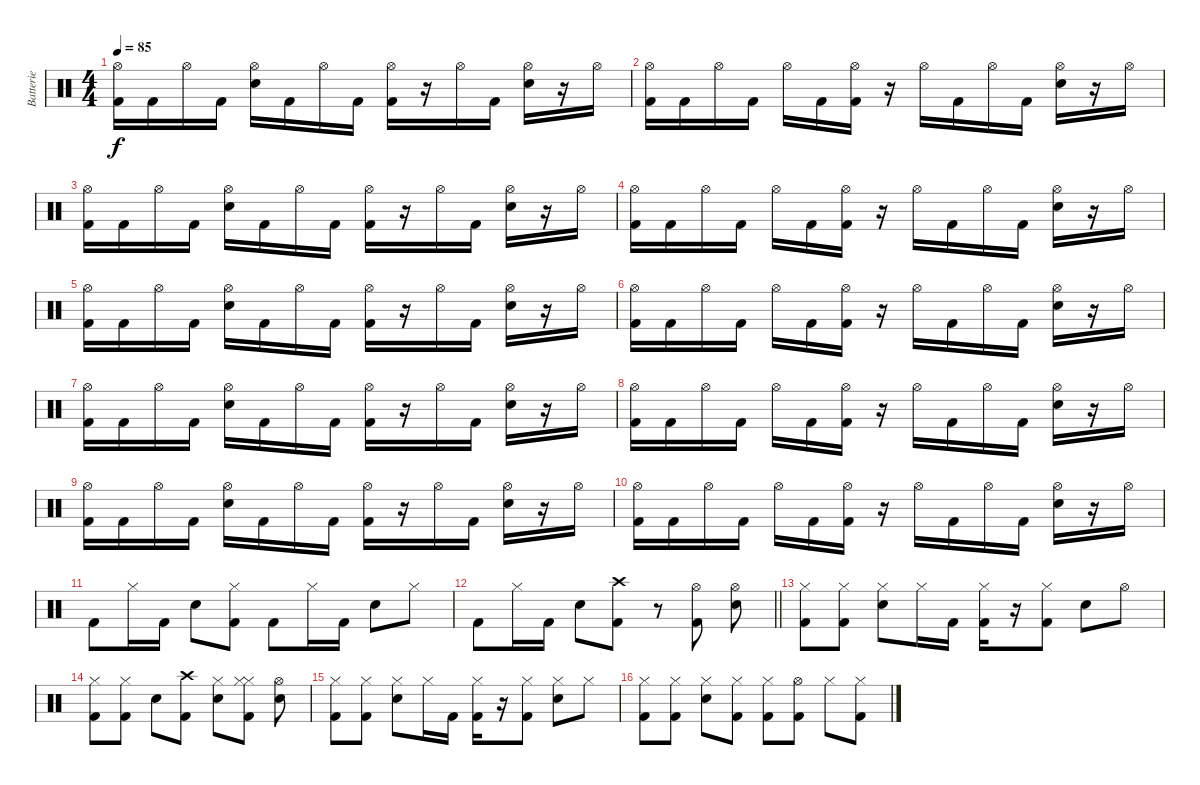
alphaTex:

\track ("Batterie" "Batterie") {instrument percussion}
\staff {score}
\articulation defaults
\ts (4 4)
\tempo 85
\clef neutral
\ks c
("Hi-Hat (open)" "Kick (hit) 2").16{dy f} "Kick (hit) 2".16 "Hi-Hat (open)".16 "Kick (hit) 2".16 ("Hi-Hat (open)" "Snare (hit) 2").16 "Kick (hit) 2".16 "Hi-Hat (open)".16 "Kick (hit) 2".16 ("Hi-Hat (open)" "Kick (hit) 2").16 r.16 "Hi-Hat (open)".16 "Kick (hit) 2".16 ("Hi-Hat (open)" "Snare (hit) 2").16 r.16 "Hi-Hat (open)".16 |
("Kick (hit) 2" "Hi-Hat (open)").16 "Kick (hit) 2".16 "Hi-Hat (open)".16 "Kick (hit) 2".16 "Hi-Hat (open)".16 "Kick (hit) 2".16 ("Hi-Hat (open)" "Kick (hit) 2").16 r.16 "Hi-Hat (open)".16 "Kick (hit) 2".16 "Hi-Hat (open)".16 "Kick (hit) 2".16 ("Snare (hit) 2" "Hi-Hat (open)").16 r.16 "Hi-Hat (open)".16 |
("Hi-Hat (open)" "Kick (hit) 2").16 "Kick (hit) 2".16 "Hi-Hat (open)".16 "Kick (hit) 2".16 ("Hi-Hat (open)" "Snare (hit) 2").16 "Kick (hit) 2".16 "Hi-Hat (open)".16 "Kick (hit) 2".16 ("Hi-Hat (open)" "Kick (hit) 2").16 r.16 "Hi-Hat (open)".16 "Kick (hit) 2".16 ("Hi-Hat (open)" "Snare (hit) 2").16 r.16 "Hi-Hat (open)".16 |
("Kick (hit) 2" "Hi-Hat (open)").16 "Kick (hit) 2".16 "Hi-Hat (open)".16 "Kick (hit) 2".16 "Hi-Hat (open)".16 "Kick (hit) 2".16 ("Hi-Hat (open)" "Kick (hit) 2").16 r.16 "Hi-Hat (open)".16 "Kick (hit) 2".16 "Hi-Hat (open)".16 "Kick (hit) 2".16 ("Snare (hit) 2" "Hi-Hat (open)").16 r.16 "Hi-Hat (open)".16 |
("Hi-Hat (open)" "Kick (hit) 2").16 "Kick (hit) 2".16 "Hi-Hat (open)".16 "Kick (hit) 2".16 ("Hi-Hat (open)" "Snare (hit) 2").16 "Kick (hit) 2".16 "Hi-Hat (open)".16 "Kick (hit) 2".16 ("Hi-Hat (open)" "Kick (hit) 2").16 r.16 "Hi-Hat (open)".16 "Kick (hit) 2".16 ("Hi-Hat (open)" "Snare (hit) 2").16 r.16 "Hi-Hat (open)".16 |
("Kick (hit) 2" "Hi-Hat (open)").16 "Kick (hit) 2".16 "Hi-Hat (open)".16 "Kick (hit) 2".16 "Hi-Hat (open)".16 "Kick (hit) 2".16 ("Hi-Hat (open)" "Kick (hit) 2").16 r.16 "Hi-Hat (open)".16 "Kick (hit) 2".16 "Hi-Hat (open)".16 "Kick (hit) 2".16 ("Snare (hit) 2" "Hi-Hat (open)").16 r.16 "Hi-Hat (open)".16 |
("Hi-Hat (open)" "Kick (hit) 2").16 "Kick (hit) 2".16 "Hi-Hat (open)".16 "Kick (hit) 2".16 ("Hi-Hat (open)" "Snare (hit) 2").16 "Kick (hit) 2".16 "Hi-Hat (open)".16 "Kick (hit) 2".16 ("Hi-Hat (open)" "Kick (hit) 2").16 r.16 "Hi-Hat (open)".16 "Kick (hit) 2".16 ("Hi-Hat (open)" "Snare (hit) 2").16 r.16 "Hi-Hat (open)".16 |
("Kick (hit) 2" "Hi-Hat (open)").16 "Kick (hit) 2".16 "Hi-Hat (open)".16 "Kick (hit) 2".16 "Hi-Hat (open)".16 "Kick (hit) 2".16 ("Hi-Hat (open)" "Kick (hit) 2").16 r.16 "Hi-Hat (open)".16 "Kick (hit) 2".16 "Hi-Hat (open)".16 "Kick (hit) 2".16 ("Snare (hit) 2" "Hi-Hat (open)").16 r.16 "Hi-Hat (open)".16 |
("Hi-Hat (open)" "Kick (hit) 2").16 "Kick (hit) 2".16 "Hi-Hat (open)".16 "Kick (hit) 2".16 ("Hi-Hat (open)" "Snare (hit) 2").16 "Kick (hit) 2".16 "Hi-Hat (open)".16 "Kick (hit) 2".16 ("Hi-Hat (open)" "Kick (hit) 2").16 r.16 "Hi-Hat (open)".16 "Kick (hit) 2".16 ("Hi-Hat (open)" "Snare (hit) 2").16 r.16 "Hi-Hat (open)".16 |
("Kick (hit) 2" "Hi-Hat (open)").16 "Kick (hit) 2".16 "Hi-Hat (open)".16 "Kick (hit) 2".16 "Hi-Hat (open)".16 "Kick (hit) 2".16 ("Hi-Hat (open)" "Kick (hit) 2").16 r.16 "Hi-Hat (open)".16 "Kick (hit) 2".16 "Hi-Hat (open)".16 "Kick (hit) 2".16 ("Snare (hit) 2" "Hi-Hat (open)").16 r.16 "Hi-Hat (open)".16 |
"Kick (hit) 2".8 "Hi-Hat (closed)".16 "Kick (hit) 2".16 "Snare (hit) 2".8 ("Hi-Hat (closed)" "Kick (hit) 2").8 "Kick (hit) 2".8 "Hi-Hat (closed)".16 "Kick (hit) 2".16 "Snare (hit) 2".8 "Hi-Hat (closed)".8 |
\barLineRight lightlight "Kick (hit) 2".8 "Hi-Hat (closed)".16 "Kick (hit) 2".16 "Snare (hit) 2".8
("Kick (hit) 2" "Crash high (hit)").8 r.8 ("Hi-Hat (open)" "Kick (hit) 2").8 ("Hi-Hat (open)" "Snare (hit) 2").8 |
("Hi-Hat (closed)" "Kick (hit) 2").8 ("Hi-Hat (closed)" "Kick (hit) 2").8 ("Hi-Hat (closed)" "Snare (hit) 2").8 "Hi-Hat (closed)".16 "Kick (hit) 2".16 ("Kick (hit) 2" "Hi-Hat (closed)").16 r.16 ("Hi-Hat (closed)" "Kick (hit) 2").8 "Snare (hit) 2".8 "Hi-Hat (open)".8 |
("Hi-Hat (closed)" "Kick (hit) 2").8 ("Hi-Hat (closed)" "Kick (hit) 2").8 "Snare (hit) 2".8 ("Crash high (hit)" "Kick (hit) 2").8 ("Hi-Hat (closed)" "Snare (hit) 2").8 ("Kick (hit) 2" "Hi-Hat (closed)" "Hi-Hat (closed)").8 ("Hi-Hat (open)" "Snare (hit) 2").8 |
("Hi-Hat (closed)" "Kick (hit) 2").8 ("Hi-Hat (closed)" "Kick (hit) 2").8 ("Hi-Hat (closed)" "Snare (hit) 2").8 "Hi-Hat (closed)".16 "Kick (hit) 2".16 ("Hi-Hat (closed)" "Kick (hit) 2").16 r.16 ("Hi-Hat (closed)" "Kick (hit) 2").8 ("Hi-Hat (closed)" "Snare (hit) 2").8 "Hi-Hat (closed)".8 |
("Kick (hit) 2" "Hi-Hat (closed)").8 ("Hi-Hat (closed)" "Kick (hit) 2").8 ("Hi-Hat (closed)" "Snare (hit) 2").8 ("Hi-Hat (closed)" "Kick (hit) 2").8 ("Hi-Hat (closed)" "Kick (hit) 2").8 ("Hi-Hat (open)" "Kick (hit) 2").8 "Hi-Hat (closed)".8 ("Hi-Hat (closed)" "Kick (hit) 2").8
